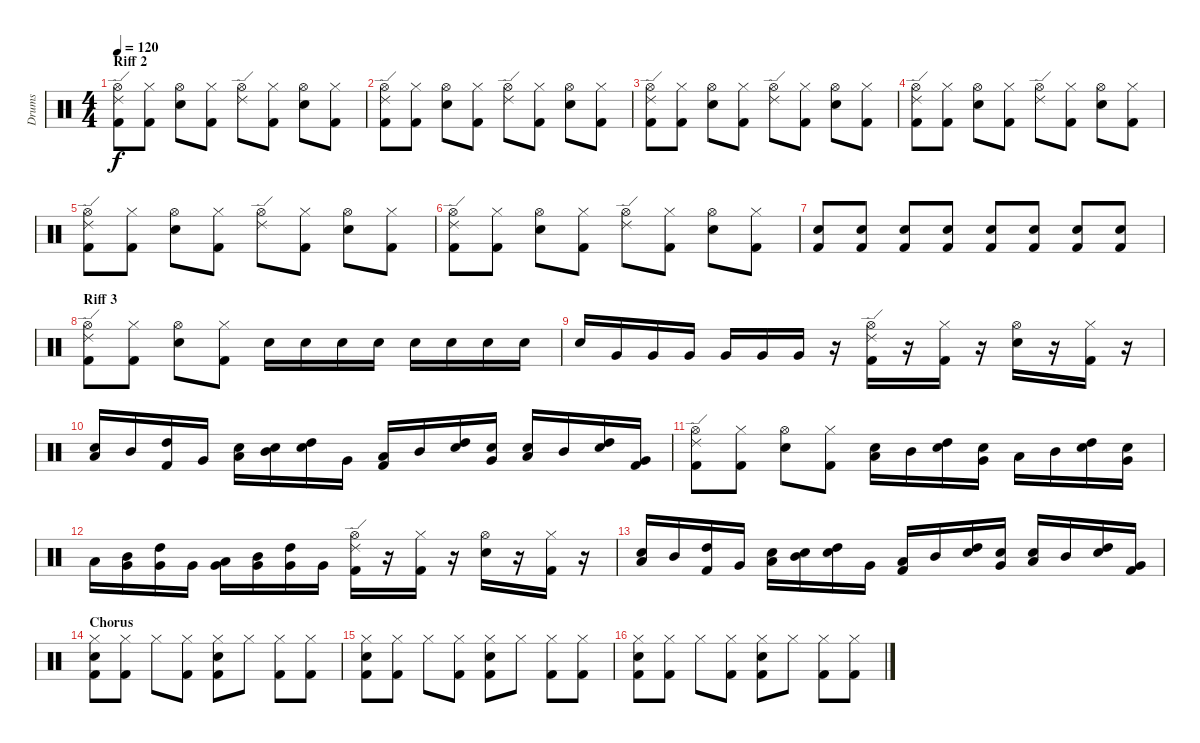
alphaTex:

\track ("Drums" "Drums") {instrument percussion}
\staff {score}
\articulation defaults
\ts (4 4)
\section ("" "Riff 2")
\tempo 120
\clef neutral
\ks c
("Hi-Hat (open)" "Ride (edge) 2" "Kick (hit) 2").8{dy f} ("Hi-Hat (closed)" "Kick (hit) 2").8 ("Hi-Hat (open)" "Snare (hit) 2").8 ("Hi-Hat (closed)" "Kick (hit) 2").8 ("Hi-Hat (open)" "Ride (edge) 2").8 ("Hi-Hat (closed)" "Kick (hit) 2").8 ("Hi-Hat (open)" "Snare (hit) 2").8 ("Hi-Hat (closed)" "Kick (hit) 2").8 |
("Hi-Hat (open)" "Ride (edge) 2" "Kick (hit) 2").8 ("Hi-Hat (closed)" "Kick (hit) 2").8 ("Hi-Hat (open)" "Snare (hit) 2").8 ("Hi-Hat (closed)" "Kick (hit) 2").8 ("Hi-Hat (open)" "Ride (edge) 2").8 ("Hi-Hat (closed)" "Kick (hit) 2").8 ("Hi-Hat (open)" "Snare (hit) 2").8 ("Hi-Hat (closed)" "Kick (hit) 2").8 |
("Hi-Hat (open)" "Ride (edge) 2" "Kick (hit) 2").8 ("Hi-Hat (closed)" "Kick (hit) 2").8 ("Hi-Hat (open)" "Snare (hit) 2").8 ("Hi-Hat (closed)" "Kick (hit) 2").8 ("Hi-Hat (open)" "Ride (edge) 2").8 ("Hi-Hat (closed)" "Kick (hit) 2").8 ("Hi-Hat (open)" "Snare (hit) 2").8 ("Hi-Hat (closed)" "Kick (hit) 2").8 |
("Hi-Hat (open)" "Ride (edge) 2" "Kick (hit) 2").8 ("Hi-Hat (closed)" "Kick (hit) 2").8 ("Hi-Hat (open)" "Snare (hit) 2").8 ("Hi-Hat (closed)" "Kick (hit) 2").8 ("Hi-Hat (open)" "Ride (edge) 2").8 ("Hi-Hat (closed)" "Kick (hit) 2").8 ("Hi-Hat (open)" "Snare (hit) 2").8 ("Hi-Hat (closed)" "Kick (hit) 2").8 |
("Hi-Hat (open)" "Ride (edge) 2" "Kick (hit) 2").8 ("Hi-Hat (closed)" "Kick (hit) 2").8 ("Hi-Hat (open)" "Snare (hit) 2").8 ("Hi-Hat (closed)" "Kick (hit) 2").8 ("Hi-Hat (open)" "Ride (edge) 2").8 ("Hi-Hat (closed)" "Kick (hit) 2").8 ("Hi-Hat (open)" "Snare (hit) 2").8 ("Hi-Hat (closed)" "Kick (hit) 2").8 |
("Hi-Hat (open)" "Ride (edge) 2" "Kick (hit) 2").8 ("Hi-Hat (closed)" "Kick (hit) 2").8 ("Hi-Hat (open)" "Snare (hit) 2").8 ("Hi-Hat (closed)" "Kick (hit) 2").8 ("Hi-Hat (open)" "Ride (edge) 2").8 ("Hi-Hat (closed)" "Kick (hit) 2").8 ("Hi-Hat (open)" "Snare (hit) 2").8 ("Hi-Hat (closed)" "Kick (hit) 2").8 |
("Snare (hit) 2" "Kick (hit) 2").8{volume 3} ("Snare (hit) 2" "Kick (hit) 2").8{volume 13} ("Snare (hit) 2" "Kick (hit) 2").8 ("Snare (hit) 2" "Kick (hit) 2").8 ("Snare (hit) 2" "Kick (hit) 2").8 ("Snare (hit) 2" "Kick (hit) 2").8 ("Snare (hit) 2" "Kick (hit) 2").8 ("Snare (hit) 2" "Kick (hit) 2").8 |
\section ("" "Riff 3")
("Hi-Hat (open)" "Ride (edge) 2" "Kick (hit) 2").8 ("Hi-Hat (closed)" "Kick (hit) 2").8 ("Hi-Hat (open)" "Snare (hit) 2").8 ("Hi-Hat (closed)" "Kick (hit) 2").8 "Snare (hit) 2".16 "Snare (hit) 2".16 "Snare (hit) 2".16 "Snare (hit) 2".16 "Snare (hit) 2".16 "Snare (hit) 2".16 "Snare (hit) 2".16 "Snare (hit) 2".16 |
"Snare (hit) 2".16 "Very Low Tom (hit)".16 "Very Low Tom (hit)".16 "Very Low Tom (hit)".16 "Very Low Tom (hit)".16 "Very Low Tom (hit)".16 "Very Low Tom (hit)".16 r.16 ("Hi-Hat (open)" "Ride (edge) 2" "Kick (hit) 2").16 r.16 ("Hi-Hat (closed)" "Kick (hit) 2").16 r.16 ("Hi-Hat (open)" "Snare (hit) 2").16 r.16 ("Hi-Hat (closed)" "Kick (hit) 2").16 r.16 |
("Snare (hit) 2" "Low Tom (hit)").16 "Mid Tom (hit)".16 ("Kick (hit) 2" "High Tom (hit)").16 "Very Low Tom (hit)".16 ("Snare (hit) 2" "Low Tom (hit)").16 ("Snare (hit) 2" "Mid Tom (hit)").16 ("Snare (hit) 2" "High Tom (hit)").16 "Very Low Tom (hit)".16 ("Kick (hit) 2" "Low Tom (hit)").16 "Mid Tom (hit)".16 ("Snare (hit) 2" "High Tom (hit)").16 ("Snare (hit) 2" "Very Low Tom (hit)").16 ("Snare (hit) 2" "Low Tom (hit)").16 "Mid Tom (hit)".16 ("Snare (hit) 2" "High Tom (hit)").16 ("Kick (hit) 2" "Very Low Tom (hit)").16 |
("Hi-Hat (open)" "Ride (edge) 2" "Kick (hit) 2").8 ("Hi-Hat (closed)" "Kick (hit) 2").8 ("Hi-Hat (open)" "Snare (hit) 2").8 ("Hi-Hat (closed)" "Kick (hit) 2").8 ("Snare (hit) 2" "Low Tom (hit)").16 "Mid Tom (hit)".16 ("Snare (hit) 2" "High Tom (hit)").16 ("Snare (hit) 2" "Very Low Tom (hit)").16 "Low Tom (hit)".16 "Mid Tom (hit)".16 ("Snare (hit) 2" "High Tom (hit)").16 ("Snare (hit) 2" "Very Low Tom (hit)").16 |
"Low Tom (hit)".16 ("Very Low Tom (hit)" "Mid Tom (hit)").16 ("Very Low Tom (hit)" "High Tom (hit)").16 "Very Low Tom (hit)".16 ("Very Low Tom (hit)" "Low Tom (hit)").16 ("Very Low Tom (hit)" "Mid Tom (hit)").16 ("Very Low Tom (hit)" "High Tom (hit)").16 "Very Low Tom (hit)".16 ("Hi-Hat (open)" "Ride (edge) 2" "Kick (hit) 2").16 r.16 ("Hi-Hat (closed)" "Kick (hit) 2").16 r.16 ("Hi-Hat (open)" "Snare (hit) 2").16 r.16 ("Hi-Hat (closed)" "Kick (hit) 2").16 r.16 |
("Snare (hit) 2" "Low Tom (hit)").16 "Mid Tom (hit)".16 ("Kick (hit) 2" "High Tom (hit)").16 "Very Low Tom (hit)".16 ("Snare (hit) 2" "Low Tom (hit)").16 ("Snare (hit) 2" "Mid Tom (hit)").16 ("Snare (hit) 2" "High Tom (hit)").16 "Very Low Tom (hit)".16 ("Kick (hit) 2" "Low Tom (hit)").16 "Mid Tom (hit)".16 ("Snare (hit) 2" "High Tom (hit)").16 ("Snare (hit) 2" "Very Low Tom (hit)").16 ("Snare (hit) 2" "Low Tom (hit)").16 "Mid Tom (hit)".16 ("Snare (hit) 2" "High Tom (hit)").16 ("Kick (hit) 2" "Very Low Tom (hit)").16 |
\section ("" "Chorus")
("Hi-Hat (closed)" "Snare (hit) 2" "Kick (hit) 2").8 ("Hi-Hat (closed)" "Kick (hit) 2").8 "Hi-Hat (closed)".8 ("Hi-Hat (closed)" "Kick (hit) 2").8 ("Hi-Hat (closed)" "Snare (hit) 2" "Kick (hit) 2").8 "Hi-Hat (closed)".8 ("Hi-Hat (closed)" "Kick (hit) 2").8 ("Hi-Hat (closed)" "Kick (hit) 2").8 |
("Hi-Hat (closed)" "Snare (hit) 2" "Kick (hit) 2").8 ("Hi-Hat (closed)" "Kick (hit) 2").8 "Hi-Hat (closed)".8 ("Hi-Hat (closed)" "Kick (hit) 2").8 ("Hi-Hat (closed)" "Snare (hit) 2" "Kick (hit) 2").8 "Hi-Hat (closed)".8 ("Hi-Hat (closed)" "Kick (hit) 2").8 ("Hi-Hat (closed)" "Kick (hit) 2").8 |
("Hi-Hat (closed)" "Snare (hit) 2" "Kick (hit) 2").8 ("Hi-Hat (closed)" "Kick (hit) 2").8 "Hi-Hat (closed)".8 ("Hi-Hat (closed)" "Kick (hit) 2").8 ("Hi-Hat (closed)" "Snare (hit) 2" "Kick (hit) 2").8 "Hi-Hat (closed)".8 ("Hi-Hat (closed)" "Kick (hit) 2").8 ("Hi-Hat (closed)" "Kick (hit) 2").8
